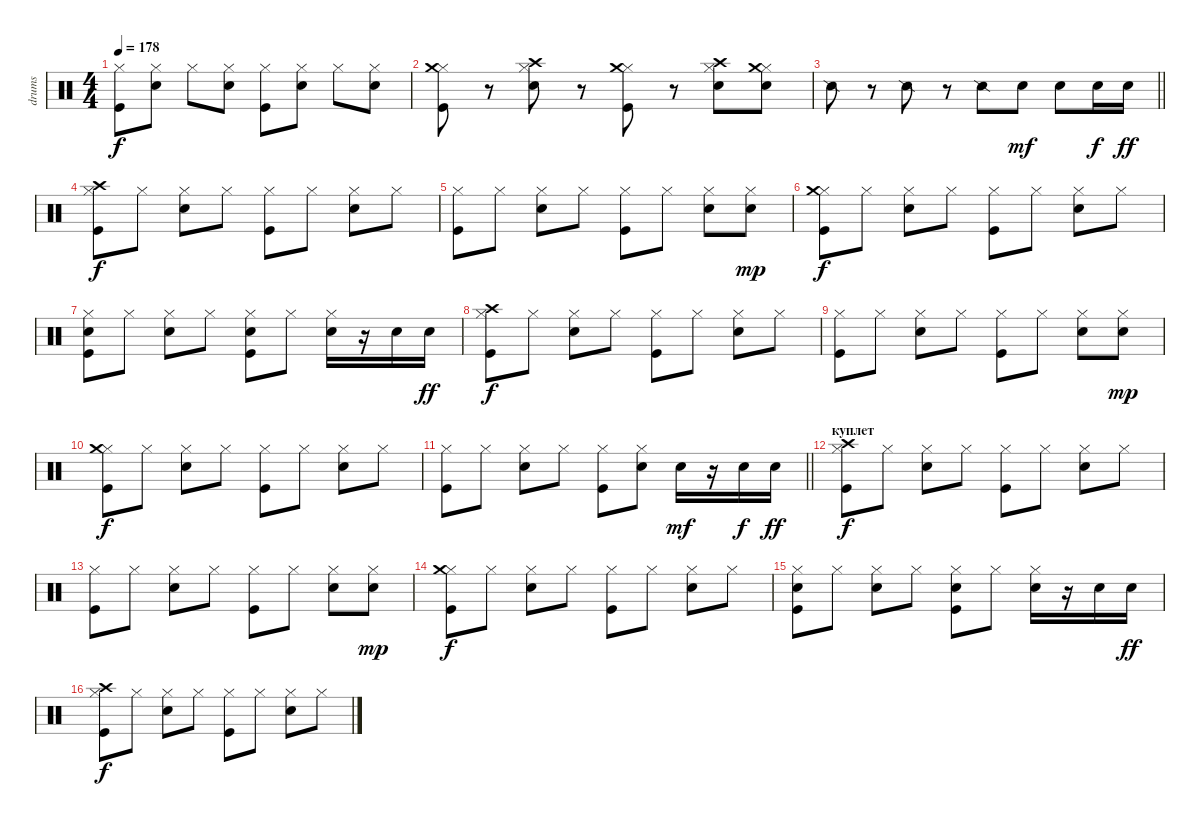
\track ("drums" "drums") {instrument percussion}
\staff {score}
\articulation defaults
\ts (4 4)
\tempo 178
\clef neutral
\ks c
("Hi-Hat (closed)" "Kick (hit)").8{dy f} ("Hi-Hat (closed)" "Electric Snare (hit)").8 "Hi-Hat (closed)".8 ("Hi-Hat (closed)" "Electric Snare (hit)").8 ("Hi-Hat (closed)" "Kick (hit)").8 ("Hi-Hat (closed)" "Electric Snare (hit)").8 "Hi-Hat (closed)".8 ("Hi-Hat (closed)" "Electric Snare (hit)").8 |
("Hi-Hat (closed)" "Crash medium (hit)" "Kick (hit)").8 r.8 ("Hi-Hat (closed)" "Crash high (hit)" "Electric Snare (hit)").8 r.8 ("Hi-Hat (closed)" "Crash medium (hit)" "Kick (hit)").8 r.8 ("Hi-Hat (closed)" "Crash high (hit)" "Electric Snare (hit)").8 ("Hi-Hat (closed)" "Crash medium (hit)" "Electric Snare (hit)").8 |
\barLineRight lightlight "Snare (side stick) 2".8
r.8 "Snare (side stick) 2".8 r.8 "Snare (side stick) 2".8 "Electric Snare (hit)".8{dy mf} "Electric Snare (hit)".8 "Electric Snare (hit)".16{dy f} "Electric Snare (hit)".16{dy ff} |
("Hi-Hat (closed)" "Crash high (hit)" "Kick (hit)").8{dy f} "Hi-Hat (closed)".8 ("Hi-Hat (closed)" "Electric Snare (hit)").8 "Hi-Hat (closed)".8 ("Hi-Hat (closed)" "Kick (hit)").8 "Hi-Hat (closed)".8 ("Hi-Hat (closed)" "Electric Snare (hit)").8 "Hi-Hat (closed)".8 |
("Hi-Hat (closed)" "Kick (hit)").8 "Hi-Hat (closed)".8 ("Hi-Hat (closed)" "Electric Snare (hit)").8 "Hi-Hat (closed)".8 ("Hi-Hat (closed)" "Kick (hit)").8 "Hi-Hat (closed)".8 ("Hi-Hat (closed)" "Electric Snare (hit)").8 ("Hi-Hat (closed)" "Electric Snare (hit)").8{dy mp} |
("Hi-Hat (closed)" "Crash medium (hit)" "Kick (hit)").8{dy f} "Hi-Hat (closed)".8 ("Hi-Hat (closed)" "Electric Snare (hit)").8 "Hi-Hat (closed)".8 ("Hi-Hat (closed)" "Kick (hit)").8 "Hi-Hat (closed)".8 ("Hi-Hat (closed)" "Electric Snare (hit)").8 "Hi-Hat (closed)".8 |
("Hi-Hat (closed)" "Electric Snare (hit)" "Kick (hit)").8 "Hi-Hat (closed)".8 ("Hi-Hat (closed)" "Electric Snare (hit)").8 "Hi-Hat (closed)".8 ("Hi-Hat (closed)" "Electric Snare (hit)" "Kick (hit)").8 "Hi-Hat (closed)".8 ("Hi-Hat (closed)" "Electric Snare (hit)").16 r.16 "Electric Snare (hit)".16 "Electric Snare (hit)".16{dy ff} |
("Hi-Hat (closed)" "Crash high (hit)" "Kick (hit)").8{dy f} "Hi-Hat (closed)".8 ("Hi-Hat (closed)" "Electric Snare (hit)").8 "Hi-Hat (closed)".8 ("Hi-Hat (closed)" "Kick (hit)").8 "Hi-Hat (closed)".8 ("Hi-Hat (closed)" "Electric Snare (hit)").8 "Hi-Hat (closed)".8 |
("Hi-Hat (closed)" "Kick (hit)").8 "Hi-Hat (closed)".8 ("Hi-Hat (closed)" "Electric Snare (hit)").8 "Hi-Hat (closed)".8 ("Hi-Hat (closed)" "Kick (hit)").8 "Hi-Hat (closed)".8 ("Hi-Hat (closed)" "Electric Snare (hit)").8 ("Hi-Hat (closed)" "Electric Snare (hit)").8{dy mp} |
("Hi-Hat (closed)" "Crash medium (hit)" "Kick (hit)").8{dy f} "Hi-Hat (closed)".8 ("Hi-Hat (closed)" "Electric Snare (hit)").8 "Hi-Hat (closed)".8 ("Hi-Hat (closed)" "Kick (hit)").8 "Hi-Hat (closed)".8 ("Hi-Hat (closed)" "Electric Snare (hit)").8 "Hi-Hat (closed)".8 |
\barLineRight lightlight
("Hi-Hat (closed)" "Kick (hit)").8 "Hi-Hat (closed)".8 ("Hi-Hat (closed)" "Electric Snare (hit)").8 "Hi-Hat (closed)".8 ("Hi-Hat (closed)" "Kick (hit)").8 ("Hi-Hat (closed)" "Electric Snare (hit)").8 "Electric Snare (hit)".16{dy mf} r.16 "Electric Snare (hit)".16{dy f} "Electric Snare (hit)".16{dy ff} |
\section ("" "куплет")
("Hi-Hat (closed)" "Crash high (hit)" "Kick (hit)").8{dy f} "Hi-Hat (closed)".8 ("Hi-Hat (closed)" "Electric Snare (hit)").8 "Hi-Hat (closed)".8 ("Hi-Hat (closed)" "Kick (hit)").8 "Hi-Hat (closed)".8 ("Hi-Hat (closed)" "Electric Snare (hit)").8 "Hi-Hat (closed)".8 |
("Hi-Hat (closed)" "Kick (hit)").8 "Hi-Hat (closed)".8 ("Hi-Hat (closed)" "Electric Snare (hit)").8 "Hi-Hat (closed)".8 ("Hi-Hat (closed)" "Kick (hit)").8 "Hi-Hat (closed)".8 ("Hi-Hat (closed)" "Electric Snare (hit)").8 ("Hi-Hat (closed)" "Electric Snare (hit)").8{dy mp} |
("Hi-Hat (closed)" "Crash medium (hit)" "Kick (hit)").8{dy f} "Hi-Hat (closed)".8 ("Hi-Hat (closed)" "Electric Snare (hit)").8 "Hi-Hat (closed)".8 ("Hi-Hat (closed)" "Kick (hit)").8 "Hi-Hat (closed)".8 ("Hi-Hat (closed)" "Electric Snare (hit)").8 "Hi-Hat (closed)".8 |
("Hi-Hat (closed)" "Electric Snare (hit)" "Kick (hit)").8 "Hi-Hat (closed)".8 ("Hi-Hat (closed)" "Electric Snare (hit)").8 "Hi-Hat (closed)".8 ("Hi-Hat (closed)" "Electric Snare (hit)" "Kick (hit)").8 "Hi-Hat (closed)".8 ("Hi-Hat (closed)" "Electric Snare (hit)").16 r.16 "Electric Snare (hit)".16 "Electric Snare (hit)".16{dy ff} |
("Hi-Hat (closed)" "Crash high (hit)" "Kick (hit)").8{dy f} "Hi-Hat (closed)".8 ("Hi-Hat (closed)" "Electric Snare (hit)").8 "Hi-Hat (closed)".8 ("Hi-Hat (closed)" "Kick (hit)").8 "Hi-Hat (closed)".8 ("Hi-Hat (closed)" "Electric Snare (hit)").8 "Hi-Hat (closed)".8
